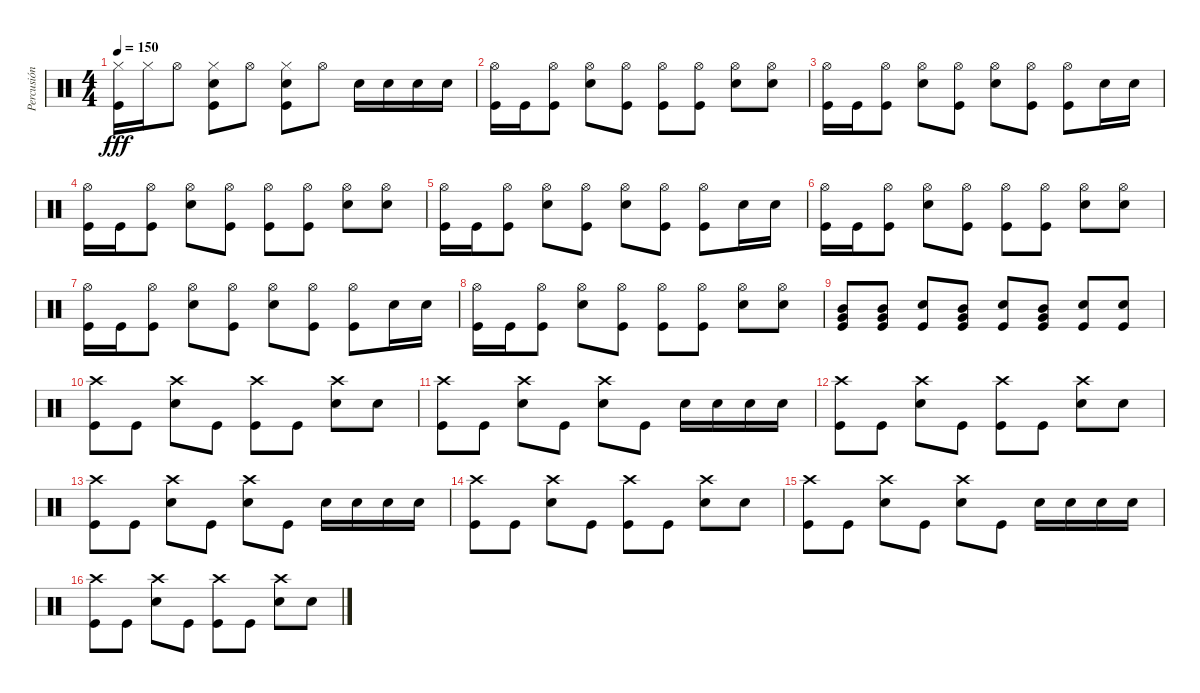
\track ("Percusión" "Percusión") {instrument percussion}
\staff {score}
\articulation defaults
\ts (4 4)
\tempo 150
\clef neutral
\ks c
("Kick (hit)" "Hi-Hat (closed)").16{dy fff} "Hi-Hat (closed)".16 "Hi-Hat (open)".8 ("Hi-Hat (closed)" "Kick (hit)" "Snare (hit) 2").8 "Hi-Hat (open)".8 ("Kick (hit)" "Hi-Hat (closed)" "Snare (hit) 2").8 "Hi-Hat (open)".8 "Snare (hit) 2".16 "Snare (hit) 2".16 "Snare (hit) 2".16 "Snare (hit) 2".16 |
("Kick (hit)" "Hi-Hat (open)").16 "Kick (hit)".16 ("Kick (hit)" "Hi-Hat (open)").8 ("Snare (hit) 2" "Hi-Hat (open)").8 ("Kick (hit)" "Hi-Hat (open)").8 ("Kick (hit)" "Hi-Hat (open)").8 ("Kick (hit)" "Hi-Hat (open)").8 ("Hi-Hat (open)" "Snare (hit) 2").8 ("Snare (hit) 2" "Hi-Hat (open)").8 |
("Kick (hit)" "Hi-Hat (open)").16 "Kick (hit)".16 ("Kick (hit)" "Hi-Hat (open)").8 ("Snare (hit) 2" "Hi-Hat (open)").8 ("Kick (hit)" "Hi-Hat (open)").8 ("Hi-Hat (open)" "Snare (hit) 2").8 ("Kick (hit)" "Hi-Hat (open)").8 ("Hi-Hat (open)" "Kick (hit)").8 "Snare (hit) 2".16 "Snare (hit) 2".16 |
("Kick (hit)" "Hi-Hat (open)").16 "Kick (hit)".16 ("Kick (hit)" "Hi-Hat (open)").8 ("Snare (hit) 2" "Hi-Hat (open)").8 ("Kick (hit)" "Hi-Hat (open)").8 ("Kick (hit)" "Hi-Hat (open)").8 ("Kick (hit)" "Hi-Hat (open)").8 ("Hi-Hat (open)" "Snare (hit) 2").8 ("Snare (hit) 2" "Hi-Hat (open)").8 |
("Kick (hit)" "Hi-Hat (open)").16 "Kick (hit)".16 ("Kick (hit)" "Hi-Hat (open)").8 ("Snare (hit) 2" "Hi-Hat (open)").8 ("Kick (hit)" "Hi-Hat (open)").8 ("Hi-Hat (open)" "Snare (hit) 2").8 ("Kick (hit)" "Hi-Hat (open)").8 ("Hi-Hat (open)" "Kick (hit)").8 "Snare (hit) 2".16 "Snare (hit) 2".16 |
("Kick (hit)" "Hi-Hat (open)").16 "Kick (hit)".16 ("Kick (hit)" "Hi-Hat (open)").8 ("Snare (hit) 2" "Hi-Hat (open)").8 ("Kick (hit)" "Hi-Hat (open)").8 ("Kick (hit)" "Hi-Hat (open)").8 ("Kick (hit)" "Hi-Hat (open)").8 ("Hi-Hat (open)" "Snare (hit) 2").8 ("Snare (hit) 2" "Hi-Hat (open)").8 |
("Kick (hit)" "Hi-Hat (open)").16 "Kick (hit)".16 ("Kick (hit)" "Hi-Hat (open)").8 ("Snare (hit) 2" "Hi-Hat (open)").8 ("Kick (hit)" "Hi-Hat (open)").8 ("Hi-Hat (open)" "Snare (hit) 2").8 ("Kick (hit)" "Hi-Hat (open)").8 ("Hi-Hat (open)" "Kick (hit)").8 "Snare (hit) 2".16 "Snare (hit) 2".16 |
("Kick (hit)" "Hi-Hat (open)").16 "Kick (hit)".16 ("Kick (hit)" "Hi-Hat (open)").8 ("Snare (hit) 2" "Hi-Hat (open)").8 ("Kick (hit)" "Hi-Hat (open)").8 ("Kick (hit)" "Hi-Hat (open)").8 ("Kick (hit)" "Hi-Hat (open)").8 ("Snare (hit) 2" "Hi-Hat (open)").8 ("Snare (hit) 2" "Hi-Hat (open)").8 |
("Kick (hit)" "Very Low Tom (hit)" "Mid Tom (hit)").8 ("Kick (hit)" "Mid Tom (hit)" "Very Low Tom (hit)").8 ("Kick (hit)" "Snare (hit) 2").8 ("Kick (hit)" "Very Low Tom (hit)" "Mid Tom (hit)").8 ("Kick (hit)" "Snare (hit) 2").8 ("Kick (hit)" "Very Low Tom (hit)" "Mid Tom (hit)").8 ("Kick (hit)" "Snare (hit) 2").8 ("Kick (hit)" "Snare (hit) 2").8 |
("Crash high (hit)" "Kick (hit)").8 "Kick (hit)".8 ("Crash high (hit)" "Snare (hit) 2").8 "Kick (hit)".8 ("Kick (hit)" "Crash high (hit)").8 "Kick (hit)".8 ("Snare (hit) 2" "Crash high (hit)").8 "Snare (hit) 2".8 |
("Crash high (hit)" "Kick (hit)").8 "Kick (hit)".8 ("Crash high (hit)" "Snare (hit) 2").8 "Kick (hit)".8 ("Crash high (hit)" "Snare (hit) 2").8 "Kick (hit)".8 "Snare (hit) 2".16 "Snare (hit) 2".16 "Snare (hit) 2".16 "Snare (hit) 2".16 |
("Crash high (hit)" "Kick (hit)").8 "Kick (hit)".8 ("Crash high (hit)" "Snare (hit) 2").8 "Kick (hit)".8 ("Kick (hit)" "Crash high (hit)").8 "Kick (hit)".8 ("Snare (hit) 2" "Crash high (hit)").8 "Snare (hit) 2".8 |
("Crash high (hit)" "Kick (hit)").8 "Kick (hit)".8 ("Crash high (hit)" "Snare (hit) 2").8 "Kick (hit)".8 ("Crash high (hit)" "Snare (hit) 2").8 "Kick (hit)".8 "Snare (hit) 2".16 "Snare (hit) 2".16 "Snare (hit) 2".16 "Snare (hit) 2".16 |
("Crash high (hit)" "Kick (hit)").8 "Kick (hit)".8 ("Crash high (hit)" "Snare (hit) 2").8 "Kick (hit)".8 ("Kick (hit)" "Crash high (hit)").8 "Kick (hit)".8 ("Snare (hit) 2" "Crash high (hit)").8 "Snare (hit) 2".8 |
("Crash high (hit)" "Kick (hit)").8 "Kick (hit)".8 ("Crash high (hit)" "Snare (hit) 2").8 "Kick (hit)".8 ("Crash high (hit)" "Snare (hit) 2").8 "Kick (hit)".8 "Snare (hit) 2".16 "Snare (hit) 2".16 "Snare (hit) 2".16 "Snare (hit) 2".16 |
("Crash high (hit)" "Kick (hit)").8 "Kick (hit)".8 ("Crash high (hit)" "Snare (hit) 2").8 "Kick (hit)".8 ("Kick (hit)" "Crash high (hit)").8 "Kick (hit)".8 ("Snare (hit) 2" "Crash high (hit)").8 "Snare (hit) 2".8
